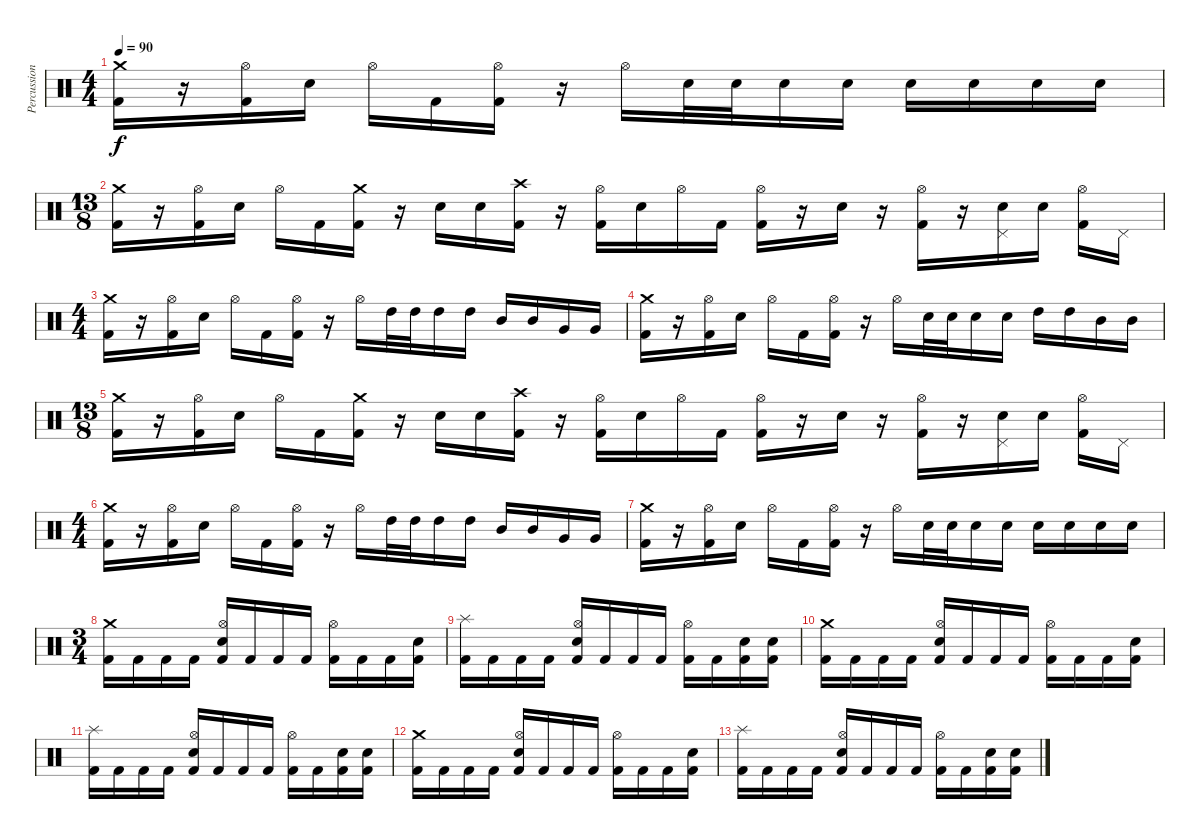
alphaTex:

\track ("Percussion" "Percussion") {instrument percussion}
\staff {score}
\articulation defaults
\ts (4 4)
\tempo 90
\clef neutral
\ks c
("Crash medium (hit)" "Kick (hit) 2").16{dy f} r.16 ("Hi-Hat (open)" "Kick (hit) 2").16 "Electric Snare (hit)".16 "Hi-Hat (open)".16 "Kick (hit) 2".16 ("Hi-Hat (open)" "Kick (hit) 2").16 r.16 "Hi-Hat (open)".16 "Electric Snare (hit)".32 "Electric Snare (hit)".32 "Electric Snare (hit)".16 "Electric Snare (hit)".16 "Electric Snare (hit)".16 "Electric Snare (hit)".16 "Electric Snare (hit)".16 "Electric Snare (hit)".16 |
\ts (13 8)
("Crash medium (hit)" "Kick (hit) 2").16 r.16 ("Hi-Hat (open)" "Kick (hit) 2").16 "Electric Snare (hit)".16 "Hi-Hat (open)".16 "Kick (hit) 2".16 ("Crash medium (hit)" "Kick (hit) 2").16 r.16 "Electric Snare (hit)".16 "Electric Snare (hit)".16 ("Crash high (hit)" "Kick (hit) 2").16 r.16 ("Hi-Hat (open)" "Kick (hit) 2").16 "Electric Snare (hit)".16 "Hi-Hat (open)".16 "Kick (hit) 2".16 ("Hi-Hat (open)" "Kick (hit) 2").16 r.16 "Electric Snare (hit)".16 r.16 ("Hi-Hat (open)" "Kick (hit) 2").16 r.16 ("Pedal Hi-Hat (hit)" "Electric Snare (hit)").16 "Electric Snare (hit)".16 ("Hi-Hat (open)" "Kick (hit) 2").16 "Pedal Hi-Hat (hit)".16 |
\ts (4 4)
("Crash medium (hit)" "Kick (hit) 2").16 r.16 ("Hi-Hat (open)" "Kick (hit) 2").16 "Electric Snare (hit)".16 "Hi-Hat (open)".16 "Kick (hit) 2".16 ("Hi-Hat (open)" "Kick (hit) 2").16 r.16 "Hi-Hat (open)".16 "High Tom (hit)".32 "High Tom (hit)".32 "High Tom (hit)".16 "High Tom (hit)".16 "Mid Tom (hit)".16 "Mid Tom (hit)".16 "Very Low Tom (hit)".16 "Very Low Tom (hit)".16 |
("Crash medium (hit)" "Kick (hit) 2").16 r.16 ("Hi-Hat (open)" "Kick (hit) 2").16 "Electric Snare (hit)".16 "Hi-Hat (open)".16 "Kick (hit) 2".16 ("Hi-Hat (open)" "Kick (hit) 2").16 r.16 "Hi-Hat (open)".16 "Electric Snare (hit)".32 "Electric Snare (hit)".32 "Electric Snare (hit)".16 "Electric Snare (hit)".16 "High Tom (hit)".16 "High Tom (hit)".16 "Mid Tom (hit)".16 "Mid Tom (hit)".16 |
\ts (13 8)
("Crash medium (hit)" "Kick (hit) 2").16 r.16 ("Hi-Hat (open)" "Kick (hit) 2").16 "Electric Snare (hit)".16 "Hi-Hat (open)".16 "Kick (hit) 2".16 ("Crash medium (hit)" "Kick (hit) 2").16 r.16 "Electric Snare (hit)".16 "Electric Snare (hit)".16 ("Crash high (hit)" "Kick (hit) 2").16 r.16 ("Hi-Hat (open)" "Kick (hit) 2").16 "Electric Snare (hit)".16 "Hi-Hat (open)".16 "Kick (hit) 2".16 ("Hi-Hat (open)" "Kick (hit) 2").16 r.16 "Electric Snare (hit)".16 r.16 ("Hi-Hat (open)" "Kick (hit) 2").16 r.16 ("Pedal Hi-Hat (hit)" "Electric Snare (hit)").16 "Electric Snare (hit)".16 ("Hi-Hat (open)" "Kick (hit) 2").16 "Pedal Hi-Hat (hit)".16 |
\ts (4 4)
("Crash medium (hit)" "Kick (hit) 2").16 r.16 ("Hi-Hat (open)" "Kick (hit) 2").16 "Electric Snare (hit)".16 "Hi-Hat (open)".16 "Kick (hit) 2".16 ("Hi-Hat (open)" "Kick (hit) 2").16 r.16 "Hi-Hat (open)".16 "High Tom (hit)".32 "High Tom (hit)".32 "High Tom (hit)".16 "High Tom (hit)".16 "Mid Tom (hit)".16 "Mid Tom (hit)".16 "Very Low Tom (hit)".16 "Very Low Tom (hit)".16 |
("Crash medium (hit)" "Kick (hit) 2").16 r.16 ("Hi-Hat (open)" "Kick (hit) 2").16 "Electric Snare (hit)".16 "Hi-Hat (open)".16 "Kick (hit) 2".16 ("Hi-Hat (open)" "Kick (hit) 2").16 r.16 "Hi-Hat (open)".16 "Electric Snare (hit)".32 "Electric Snare (hit)".32 "Electric Snare (hit)".16 "Electric Snare (hit)".16 "Electric Snare (hit)".16 "Electric Snare (hit)".16 "Electric Snare (hit)".16 "Electric Snare (hit)".16 |
\ts (3 4)
("Crash medium (hit)" "Kick (hit) 2").16 "Kick (hit) 2".16 "Kick (hit) 2".16 "Kick (hit) 2".16 ("Hi-Hat (open)" "Electric Snare (hit)" "Kick (hit) 2").16 "Kick (hit) 2".16 "Kick (hit) 2".16 "Kick (hit) 2".16 ("Hi-Hat (open)" "Kick (hit) 2").16 "Kick (hit) 2".16 "Kick (hit) 2".16 ("Electric Snare (hit)" "Kick (hit) 2").16 |
("Splash (hit)" "Kick (hit) 2").16 "Kick (hit) 2".16 "Kick (hit) 2".16 "Kick (hit) 2".16 ("Hi-Hat (open)" "Electric Snare (hit)" "Kick (hit) 2").16 "Kick (hit) 2".16 "Kick (hit) 2".16 "Kick (hit) 2".16 ("Hi-Hat (open)" "Kick (hit) 2").16 "Kick (hit) 2".16 ("Electric Snare (hit)" "Kick (hit) 2").16 ("Electric Snare (hit)" "Kick (hit) 2").16 |
("Crash medium (hit)" "Kick (hit) 2").16 "Kick (hit) 2".16 "Kick (hit) 2".16 "Kick (hit) 2".16 ("Hi-Hat (open)" "Electric Snare (hit)" "Kick (hit) 2").16 "Kick (hit) 2".16 "Kick (hit) 2".16 "Kick (hit) 2".16 ("Hi-Hat (open)" "Kick (hit) 2").16 "Kick (hit) 2".16 "Kick (hit) 2".16 ("Electric Snare (hit)" "Kick (hit) 2").16 |
("Splash (hit)" "Kick (hit) 2").16 "Kick (hit) 2".16 "Kick (hit) 2".16 "Kick (hit) 2".16 ("Hi-Hat (open)" "Electric Snare (hit)" "Kick (hit) 2").16 "Kick (hit) 2".16 "Kick (hit) 2".16 "Kick (hit) 2".16 ("Hi-Hat (open)" "Kick (hit) 2").16 "Kick (hit) 2".16 ("Electric Snare (hit)" "Kick (hit) 2").16 ("Electric Snare (hit)" "Kick (hit) 2").16 |
("Crash medium (hit)" "Kick (hit) 2").16 "Kick (hit) 2".16 "Kick (hit) 2".16 "Kick (hit) 2".16 ("Hi-Hat (open)" "Electric Snare (hit)" "Kick (hit) 2").16 "Kick (hit) 2".16 "Kick (hit) 2".16 "Kick (hit) 2".16 ("Hi-Hat (open)" "Kick (hit) 2").16 "Kick (hit) 2".16 "Kick (hit) 2".16 ("Electric Snare (hit)" "Kick (hit) 2").16 |
("Splash (hit)" "Kick (hit) 2").16 "Kick (hit) 2".16 "Kick (hit) 2".16 "Kick (hit) 2".16 ("Hi-Hat (open)" "Electric Snare (hit)" "Kick (hit) 2").16 "Kick (hit) 2".16 "Kick (hit) 2".16 "Kick (hit) 2".16 ("Hi-Hat (open)" "Kick (hit) 2").16 "Kick (hit) 2".16 ("Electric Snare (hit)" "Kick (hit) 2").16 ("Electric Snare (hit)" "Kick (hit) 2").16
